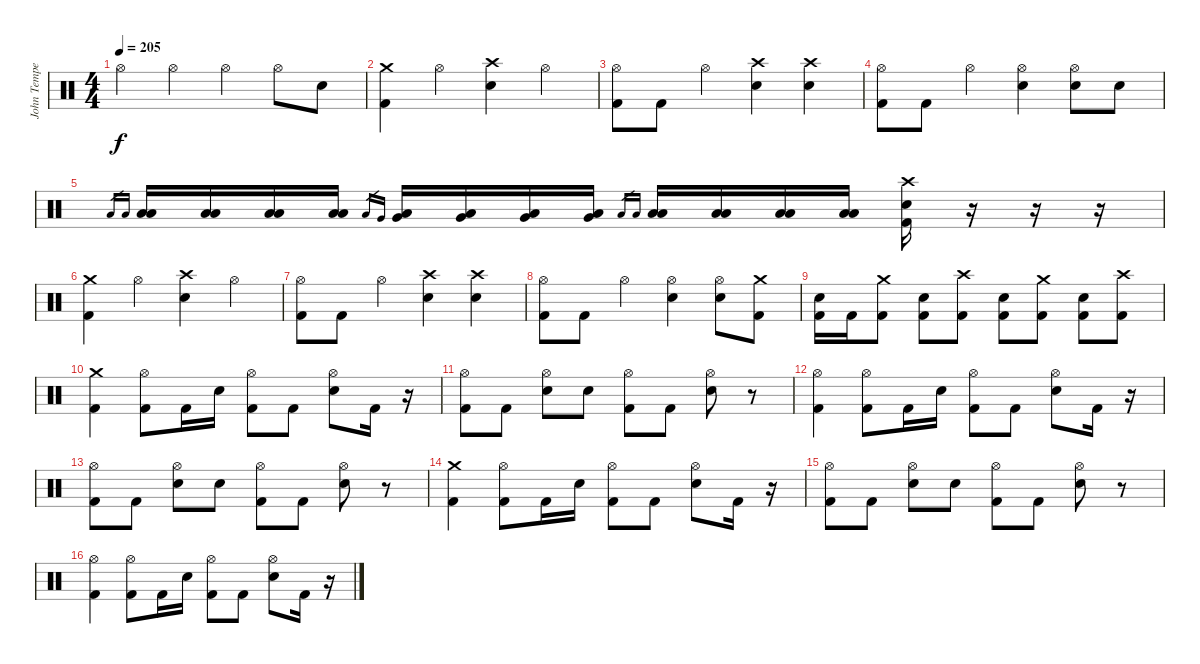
\track ("John Tempesta" "John Tempe") {instrument percussion}
\staff {score}
\articulation defaults
\ts (4 4)
\tempo 205
\clef neutral
\ks c "Hi-Hat (open)".4{dy f} "Hi-Hat (open)".4 "Hi-Hat (open)".4 "Hi-Hat (open)".8 "Snare (hit) 2".8
|
("Kick (hit) 2" "Crash medium (hit)").4 "Hi-Hat (open)".4 ("Snare (hit) 2" "Crash high (hit)").4 "Hi-Hat (open)".4 |
("Kick (hit) 2" "Hi-Hat (open)").8 "Kick (hit) 2".8 "Hi-Hat (open)".4 ("Snare (hit) 2" "Crash high (hit)").4 ("Snare (hit) 2" "Crash high (hit)").4 |
("Kick (hit) 2" "Hi-Hat (open)").8 "Kick (hit) 2".8 "Hi-Hat (open)".4 ("Snare (hit) 2" "Hi-Hat (open)").4 ("Snare (hit) 2" "Hi-Hat (open)").8 "Snare (hit) 2".8 |
"Low Floor Tom (hit)".16{gr} "Low Tom (hit)".16{gr} ("Low Floor Tom (hit)" "Low Tom (hit)").16 ("Low Floor Tom (hit)" "Low Tom (hit)").16 ("Low Floor Tom (hit)" "Low Tom (hit)").16 ("Low Floor Tom (hit)" "Low Tom (hit)").16 "Low Floor Tom (hit)".16{gr} "Very Low Tom (hit)".16{gr} ("Low Floor Tom (hit)" "Very Low Tom (hit)").16 ("Low Floor Tom (hit)" "Very Low Tom (hit)").16 ("Low Floor Tom (hit)" "Very Low Tom (hit)").16 ("Low Floor Tom (hit)" "Very Low Tom (hit)").16 "Low Floor Tom (hit)".16{gr} "Low Floor Tom (hit)".16{gr} ("Low Floor Tom (hit)" "Low Floor Tom (hit)").16 ("Low Floor Tom (hit)" "Low Floor Tom (hit)").16 ("Low Floor Tom (hit)" "Low Floor Tom (hit)").16 ("Low Floor Tom (hit)" "Low Floor Tom (hit)").16 ("Kick (hit) 2" "Crash high (hit)" "Snare (hit) 2").16 r.16 r.16 r.16 |
("Kick (hit) 2" "Crash medium (hit)").4 "Hi-Hat (open)".4 ("Snare (hit) 2" "Crash high (hit)").4 "Hi-Hat (open)".4 |
("Kick (hit) 2" "Hi-Hat (open)").8 "Kick (hit) 2".8 "Hi-Hat (open)".4 ("Snare (hit) 2" "Crash high (hit)").4 ("Snare (hit) 2" "Crash high (hit)").4 |
("Kick (hit) 2" "Hi-Hat (open)").8 "Kick (hit) 2".8 "Hi-Hat (open)".4 ("Snare (hit) 2" "Hi-Hat (open)").4 ("Snare (hit) 2" "Hi-Hat (open)").8 ("Kick (hit) 2" "Crash medium (hit)").8 |
("Kick (hit) 2" "Snare (hit) 2").16 "Kick (hit) 2".16 ("Kick (hit) 2" "Crash medium (hit)").8 ("Kick (hit) 2" "Snare (hit) 2").8 ("Kick (hit) 2" "Crash high (hit)").8 ("Kick (hit) 2" "Snare (hit) 2").8 ("Kick (hit) 2" "Crash medium (hit)").8 ("Kick (hit) 2" "Snare (hit) 2").8 ("Kick (hit) 2" "Crash high (hit)").8 |
("Kick (hit) 2" "Crash medium (hit)").4 ("Kick (hit) 2" "Hi-Hat (open)").8 "Kick (hit) 2".16 "Snare (hit) 2".16 ("Hi-Hat (open)" "Kick (hit) 2").8 "Kick (hit) 2".8 ("Snare (hit) 2" "Hi-Hat (open)").8 "Kick (hit) 2".16 r.16 |
("Kick (hit) 2" "Hi-Hat (open)").8 "Kick (hit) 2".8 ("Snare (hit) 2" "Hi-Hat (open)").8 "Snare (hit) 2".8 ("Kick (hit) 2" "Hi-Hat (open)").8 "Kick (hit) 2".8 ("Snare (hit) 2" "Hi-Hat (open)").8 r.8 |
("Kick (hit) 2" "Hi-Hat (open)").4 ("Kick (hit) 2" "Hi-Hat (open)").8 "Kick (hit) 2".16 "Snare (hit) 2".16 ("Hi-Hat (open)" "Kick (hit) 2").8 "Kick (hit) 2".8 ("Snare (hit) 2" "Hi-Hat (open)").8 "Kick (hit) 2".16 r.16 |
("Kick (hit) 2" "Hi-Hat (open)").8 "Kick (hit) 2".8 ("Snare (hit) 2" "Hi-Hat (open)").8 "Snare (hit) 2".8 ("Kick (hit) 2" "Hi-Hat (open)").8 "Kick (hit) 2".8 ("Snare (hit) 2" "Hi-Hat (open)").8 r.8 |
("Kick (hit) 2" "Crash medium (hit)").4 ("Kick (hit) 2" "Hi-Hat (open)").8 "Kick (hit) 2".16 "Snare (hit) 2".16 ("Hi-Hat (open)" "Kick (hit) 2").8 "Kick (hit) 2".8 ("Snare (hit) 2" "Hi-Hat (open)").8 "Kick (hit) 2".16 r.16 |
("Kick (hit) 2" "Hi-Hat (open)").8 "Kick (hit) 2".8 ("Snare (hit) 2" "Hi-Hat (open)").8 "Snare (hit) 2".8 ("Kick (hit) 2" "Hi-Hat (open)").8 "Kick (hit) 2".8 ("Snare (hit) 2" "Hi-Hat (open)").8 r.8 |
("Kick (hit) 2" "Hi-Hat (open)").4 ("Kick (hit) 2" "Hi-Hat (open)").8 "Kick (hit) 2".16 "Snare (hit) 2".16 ("Hi-Hat (open)" "Kick (hit) 2").8 "Kick (hit) 2".8 ("Snare (hit) 2" "Hi-Hat (open)").8 "Kick (hit) 2".16 r.16
